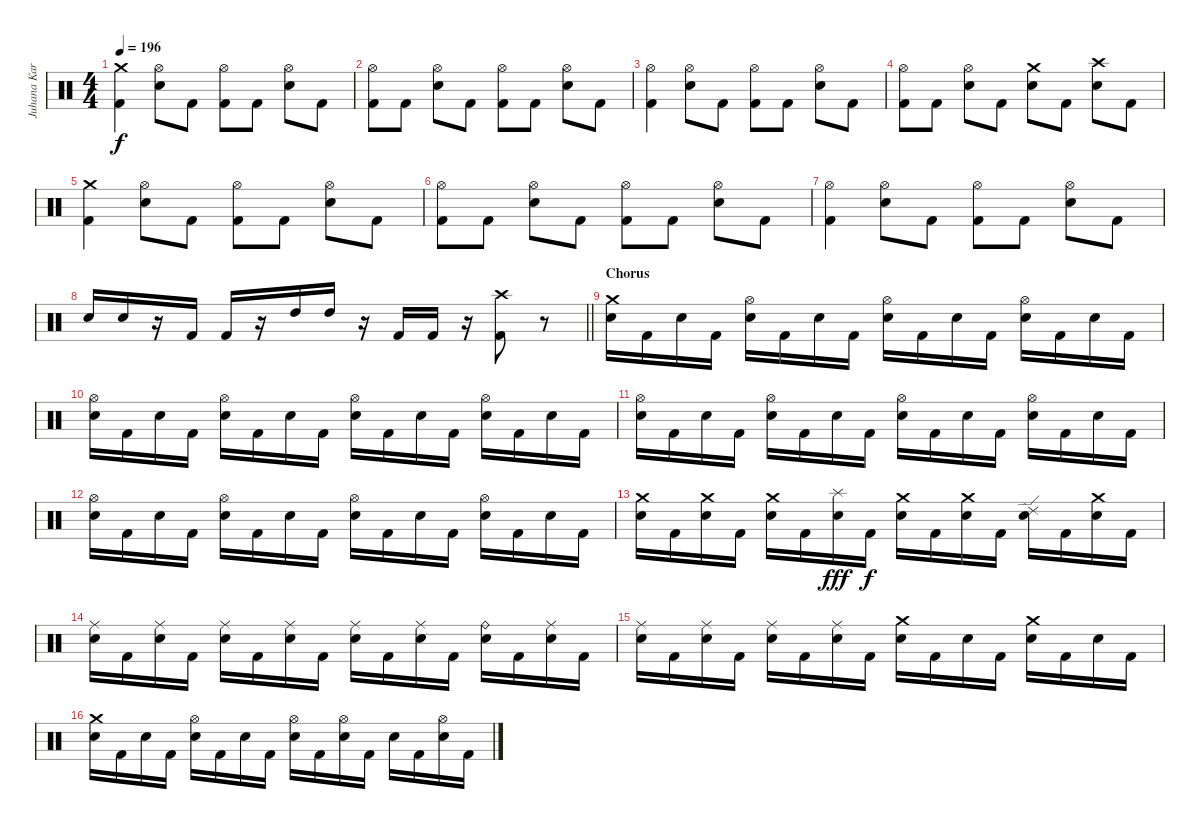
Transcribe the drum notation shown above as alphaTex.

\track ("Juhana Karlsson " "Juhana Kar") {instrument percussion}
\staff {score}
\articulation defaults
\ts (4 4)
\tempo 196
\clef neutral
\ks c
("Crash medium (hit)" "Kick (hit) 2").4{dy f} ("Hi-Hat (open)" "Electric Snare (hit)").8 "Kick (hit) 2".8 ("Hi-Hat (open)" "Kick (hit) 2").8 "Kick (hit) 2".8 ("Hi-Hat (open)" "Electric Snare (hit)").8 "Kick (hit) 2".8 |
("Hi-Hat (open)" "Kick (hit) 2").8 "Kick (hit) 2".8 ("Hi-Hat (open)" "Electric Snare (hit)").8 "Kick (hit) 2".8 ("Hi-Hat (open)" "Kick (hit) 2").8 "Kick (hit) 2".8 ("Hi-Hat (open)" "Electric Snare (hit)").8 "Kick (hit) 2".8 |
("Hi-Hat (open)" "Kick (hit) 2").4 ("Hi-Hat (open)" "Electric Snare (hit)").8 "Kick (hit) 2".8 ("Hi-Hat (open)" "Kick (hit) 2").8 "Kick (hit) 2".8 ("Hi-Hat (open)" "Electric Snare (hit)").8 "Kick (hit) 2".8 |
("Hi-Hat (open)" "Kick (hit) 2").8 "Kick (hit) 2".8 ("Hi-Hat (open)" "Electric Snare (hit)").8 "Kick (hit) 2".8 ("Crash medium (hit)" "Electric Snare (hit)").8 "Kick (hit) 2".8 ("Crash high (hit)" "Electric Snare (hit)").8 "Kick (hit) 2".8 |
("Crash medium (hit)" "Kick (hit) 2").4 ("Hi-Hat (open)" "Electric Snare (hit)").8 "Kick (hit) 2".8 ("Hi-Hat (open)" "Kick (hit) 2").8 "Kick (hit) 2".8 ("Hi-Hat (open)" "Electric Snare (hit)").8 "Kick (hit) 2".8 |
("Hi-Hat (open)" "Kick (hit) 2").8 "Kick (hit) 2".8 ("Hi-Hat (open)" "Electric Snare (hit)").8 "Kick (hit) 2".8 ("Hi-Hat (open)" "Kick (hit) 2").8 "Kick (hit) 2".8 ("Hi-Hat (open)" "Electric Snare (hit)").8 "Kick (hit) 2".8 |
("Hi-Hat (open)" "Kick (hit) 2").4 ("Hi-Hat (open)" "Electric Snare (hit)").8 "Kick (hit) 2".8 ("Hi-Hat (open)" "Kick (hit) 2").8 "Kick (hit) 2".8 ("Hi-Hat (open)" "Electric Snare (hit)").8 "Kick (hit) 2".8 |
\barLineRight lightlight "Electric Snare (hit)".16 "Electric Snare (hit)".16
r.16 "Kick (hit) 2".16 "Kick (hit) 2".16 r.16 "High Tom (hit)".16 "High Tom (hit)".16 r.16 "Kick (hit) 2".16 "Kick (hit) 2".16 r.16 ("Crash high (hit)" "Kick (hit) 2").8 r.8 |
\section ("" "Chorus")
("Crash medium (hit)" "Electric Snare (hit)").16 "Kick (hit) 2".16 "Electric Snare (hit)".16 "Kick (hit) 2".16 ("Hi-Hat (open)" "Electric Snare (hit)").16 "Kick (hit) 2".16 "Electric Snare (hit)".16 "Kick (hit) 2".16 ("Hi-Hat (open)" "Electric Snare (hit)").16 "Kick (hit) 2".16 "Electric Snare (hit)".16 "Kick (hit) 2".16 ("Hi-Hat (open)" "Electric Snare (hit)").16 "Kick (hit) 2".16 "Electric Snare (hit)".16 "Kick (hit) 2".16 |
("Hi-Hat (open)" "Electric Snare (hit)").16 "Kick (hit) 2".16 "Electric Snare (hit)".16 "Kick (hit) 2".16 ("Hi-Hat (open)" "Electric Snare (hit)").16 "Kick (hit) 2".16 "Electric Snare (hit)".16 "Kick (hit) 2".16 ("Hi-Hat (open)" "Electric Snare (hit)").16 "Kick (hit) 2".16 "Electric Snare (hit)".16 "Kick (hit) 2".16 ("Hi-Hat (open)" "Electric Snare (hit)").16 "Kick (hit) 2".16 "Electric Snare (hit)".16 "Kick (hit) 2".16 |
("Hi-Hat (open)" "Electric Snare (hit)").16 "Kick (hit) 2".16 "Electric Snare (hit)".16 "Kick (hit) 2".16 ("Hi-Hat (open)" "Electric Snare (hit)").16 "Kick (hit) 2".16 "Electric Snare (hit)".16 "Kick (hit) 2".16 ("Hi-Hat (open)" "Electric Snare (hit)").16 "Kick (hit) 2".16 "Electric Snare (hit)".16 "Kick (hit) 2".16 ("Hi-Hat (open)" "Electric Snare (hit)").16 "Kick (hit) 2".16 "Electric Snare (hit)".16 "Kick (hit) 2".16 |
("Hi-Hat (open)" "Electric Snare (hit)").16 "Kick (hit) 2".16 "Electric Snare (hit)".16 "Kick (hit) 2".16 ("Hi-Hat (open)" "Electric Snare (hit)").16 "Kick (hit) 2".16 "Electric Snare (hit)".16 "Kick (hit) 2".16 ("Hi-Hat (open)" "Electric Snare (hit)").16 "Kick (hit) 2".16 "Electric Snare (hit)".16 "Kick (hit) 2".16 ("Hi-Hat (open)" "Electric Snare (hit)").16 "Kick (hit) 2".16 "Electric Snare (hit)".16 "Kick (hit) 2".16 |
("Crash medium (hit)" "Electric Snare (hit)").16 "Kick (hit) 2".16 ("Crash medium (hit)" "Electric Snare (hit)").16 "Kick (hit) 2".16 ("Crash medium (hit)" "Electric Snare (hit)").16 "Kick (hit) 2".16 ("Splash (hit)" "Electric Snare (hit)").16{dy fff} "Kick (hit) 2".16{dy f} ("Crash medium (hit)" "Electric Snare (hit)").16 "Kick (hit) 2".16 ("Crash medium (hit)" "Electric Snare (hit)").16 "Kick (hit) 2".16 ("Ride (edge) 2" "Electric Snare (hit)").16 "Kick (hit) 2".16 ("Crash medium (hit)" "Electric Snare (hit)").16 "Kick (hit) 2".16 |
("Ride (middle)" "Electric Snare (hit)").16 "Kick (hit) 2".16 ("Ride (middle)" "Electric Snare (hit)").16 "Kick (hit) 2".16 ("Ride (middle)" "Electric Snare (hit)").16 "Kick (hit) 2".16 ("Ride (middle)" "Electric Snare (hit)").16 "Kick (hit) 2".16 ("Ride (middle)" "Electric Snare (hit)").16 "Kick (hit) 2".16 ("Ride (middle)" "Electric Snare (hit)").16 "Kick (hit) 2".16 ("Ride (bell)" "Electric Snare (hit)").16 "Kick (hit) 2".16 ("Ride (middle)" "Electric Snare (hit)").16 "Kick (hit) 2".16 |
("Ride (middle)" "Electric Snare (hit)").16 "Kick (hit) 2".16 ("Ride (middle)" "Electric Snare (hit)").16 "Kick (hit) 2".16 ("Ride (middle)" "Electric Snare (hit)").16 "Kick (hit) 2".16 ("Ride (middle)" "Electric Snare (hit)").16 "Kick (hit) 2".16 ("Crash medium (hit)" "Electric Snare (hit)").16 "Kick (hit) 2".16 "Electric Snare (hit)".16 "Kick (hit) 2".16 ("Crash medium (hit)" "Electric Snare (hit)").16 "Kick (hit) 2".16 "Electric Snare (hit)".16 "Kick (hit) 2".16 |
("Crash medium (hit)" "Electric Snare (hit)").16 "Kick (hit) 2".16 "Electric Snare (hit)".16 "Kick (hit) 2".16 ("Hi-Hat (open)" "Electric Snare (hit)").16 "Kick (hit) 2".16 "Electric Snare (hit)".16 "Kick (hit) 2".16 ("Hi-Hat (open)" "Electric Snare (hit)").16 "Kick (hit) 2".16 ("Hi-Hat (open)" "Electric Snare (hit)").16 "Kick (hit) 2".16 "Electric Snare (hit)".16 "Kick (hit) 2".16 ("Hi-Hat (open)" "Electric Snare (hit)").16 "Kick (hit) 2".16
